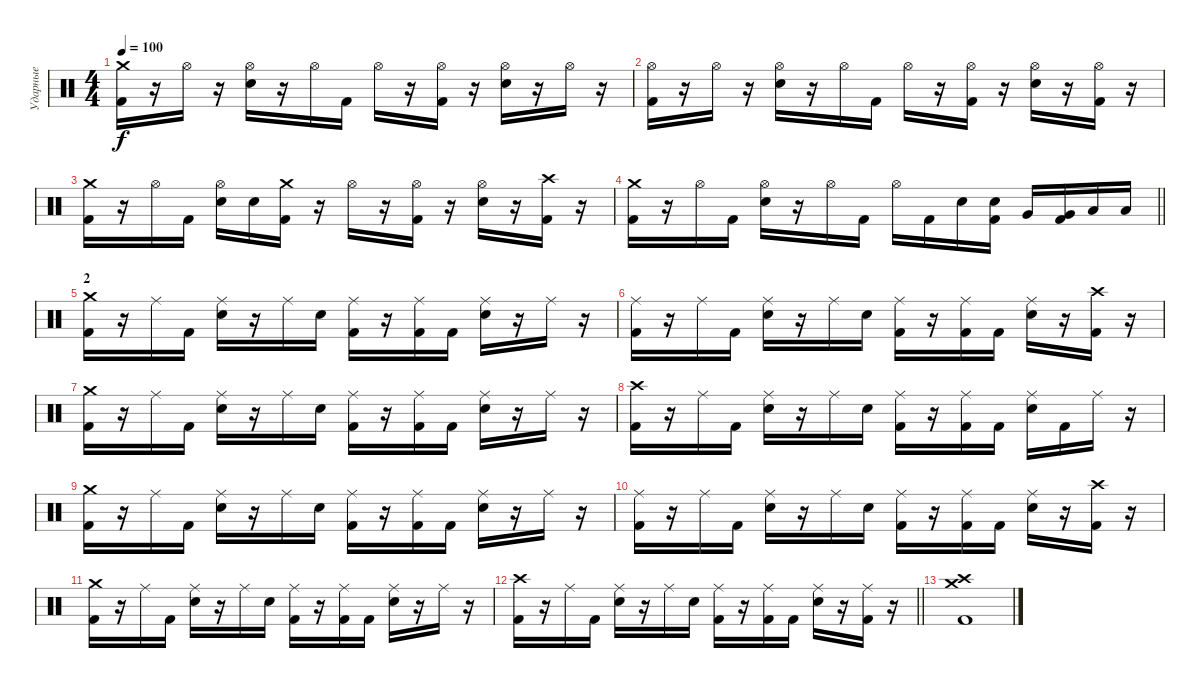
\track ("Ударные" "Ударные") {instrument percussion}
\staff {score}
\articulation defaults
\ts (4 4)
\tempo 100
\clef neutral
\ks c
("Crash medium (hit)" "Kick (hit) 2").16{dy f} r.16 "Hi-Hat (open)".16 r.16 ("Hi-Hat (open)" "Snare (hit) 2").16 r.16 "Hi-Hat (open)".16 "Kick (hit) 2".16 "Hi-Hat (open)".16 r.16 ("Hi-Hat (open)" "Kick (hit) 2").16 r.16 ("Hi-Hat (open)" "Snare (hit) 2").16 r.16 "Hi-Hat (open)".16 r.16 |
("Hi-Hat (open)" "Kick (hit) 2").16 r.16 "Hi-Hat (open)".16 r.16 ("Hi-Hat (open)" "Snare (hit) 2").16 r.16 "Hi-Hat (open)".16 "Kick (hit) 2".16 "Hi-Hat (open)".16 r.16 ("Hi-Hat (open)" "Kick (hit) 2").16 r.16 ("Hi-Hat (open)" "Snare (hit) 2").16 r.16 ("Hi-Hat (open)" "Kick (hit) 2").16 r.16 |
("Crash medium (hit)" "Kick (hit) 2").16 r.16 "Hi-Hat (open)".16 "Kick (hit) 2".16 ("Hi-Hat (open)" "Snare (hit) 2").16 "Snare (hit) 2".16 ("Crash medium (hit)" "Kick (hit) 2").16 r.16 "Hi-Hat (open)".16 r.16 ("Hi-Hat (open)" "Kick (hit) 2").16 r.16 ("Hi-Hat (open)" "Snare (hit) 2").16 r.16 ("Crash high (hit)" "Kick (hit) 2").16 r.16 |
\barLineRight lightlight
("Crash medium (hit)" "Kick (hit) 2").16 r.16 "Hi-Hat (open)".16 "Kick (hit) 2".16 ("Hi-Hat (open)" "Snare (hit) 2").16 r.16 "Hi-Hat (open)".16 "Kick (hit) 2".16 "Hi-Hat (open)".16 "Kick (hit) 2".16 "Snare (hit) 2".16 ("Snare (hit) 2" "Kick (hit) 2").16 "Very Low Tom (hit)".16 ("Very Low Tom (hit)" "Kick (hit) 2").16 "Low Tom (hit)".16 "Low Tom (hit)".16 |
\section ("" "2")
("Crash medium (hit)" "Kick (hit) 2").16 r.16 "Ride (middle)".16 "Kick (hit) 2".16 ("Ride (middle)" "Snare (hit) 2").16 r.16 "Ride (middle)".16 "Snare (hit) 2".16 ("Ride (middle)" "Kick (hit) 2").16 r.16 ("Ride (middle)" "Kick (hit) 2").16 "Kick (hit) 2".16 ("Ride (middle)" "Snare (hit) 2").16 r.16 "Ride (middle)".16 r.16 |
("Ride (middle)" "Kick (hit) 2").16 r.16 "Ride (middle)".16 "Kick (hit) 2".16 ("Ride (middle)" "Snare (hit) 2").16 r.16 "Ride (middle)".16 "Snare (hit) 2".16 ("Ride (middle)" "Kick (hit) 2").16 r.16 ("Ride (middle)" "Kick (hit) 2").16 "Kick (hit) 2".16 ("Ride (middle)" "Snare (hit) 2").16 r.16 ("Crash high (hit)" "Kick (hit) 2").16 r.16 |
("Crash medium (hit)" "Kick (hit) 2").16 r.16 "Ride (middle)".16 "Kick (hit) 2".16 ("Ride (middle)" "Snare (hit) 2").16 r.16 "Ride (middle)".16 "Snare (hit) 2".16 ("Ride (middle)" "Kick (hit) 2").16 r.16 ("Ride (middle)" "Kick (hit) 2").16 "Kick (hit) 2".16 ("Ride (middle)" "Snare (hit) 2").16 r.16 "Ride (middle)".16 r.16 |
("Crash high (hit)" "Kick (hit) 2").16 r.16 "Ride (middle)".16 "Kick (hit) 2".16 ("Ride (middle)" "Snare (hit) 2").16 r.16 "Ride (middle)".16 "Snare (hit) 2".16 ("Ride (middle)" "Kick (hit) 2").16 r.16 ("Ride (middle)" "Kick (hit) 2").16 "Kick (hit) 2".16 ("Ride (middle)" "Snare (hit) 2").16 "Kick (hit) 2".16 "Ride (middle)".16 r.16 |
("Crash medium (hit)" "Kick (hit) 2").16 r.16 "Ride (middle)".16 "Kick (hit) 2".16 ("Ride (middle)" "Snare (hit) 2").16 r.16 "Ride (middle)".16 "Snare (hit) 2".16 ("Ride (middle)" "Kick (hit) 2").16 r.16 ("Ride (middle)" "Kick (hit) 2").16 "Kick (hit) 2".16 ("Ride (middle)" "Snare (hit) 2").16 r.16 "Ride (middle)".16 r.16 |
("Ride (middle)" "Kick (hit) 2").16 r.16 "Ride (middle)".16 "Kick (hit) 2".16 ("Ride (middle)" "Snare (hit) 2").16 r.16 "Ride (middle)".16 "Snare (hit) 2".16 ("Ride (middle)" "Kick (hit) 2").16 r.16 ("Ride (middle)" "Kick (hit) 2").16 "Kick (hit) 2".16 ("Ride (middle)" "Snare (hit) 2").16 r.16 ("Crash high (hit)" "Kick (hit) 2").16 r.16 |
("Crash medium (hit)" "Kick (hit) 2").16 r.16 "Ride (middle)".16 "Kick (hit) 2".16 ("Ride (middle)" "Snare (hit) 2").16 r.16 "Ride (middle)".16 "Snare (hit) 2".16 ("Ride (middle)" "Kick (hit) 2").16 r.16 ("Ride (middle)" "Kick (hit) 2").16 "Kick (hit) 2".16 ("Ride (middle)" "Snare (hit) 2").16 r.16 "Ride (middle)".16 r.16 |
\barLineRight lightlight
("Crash high (hit)" "Kick (hit) 2").16 r.16 "Ride (middle)".16 "Kick (hit) 2".16 ("Ride (middle)" "Snare (hit) 2").16 r.16 "Ride (middle)".16 "Snare (hit) 2".16 ("Ride (middle)" "Kick (hit) 2").16 r.16 ("Ride (middle)" "Kick (hit) 2").16 "Kick (hit) 2".16 ("Ride (middle)" "Snare (hit) 2").16 r.16 ("Ride (middle)" "Kick (hit) 2").16 r.16 |
("Crash high (hit)" "Crash medium (hit)" "Kick (hit) 2").1
